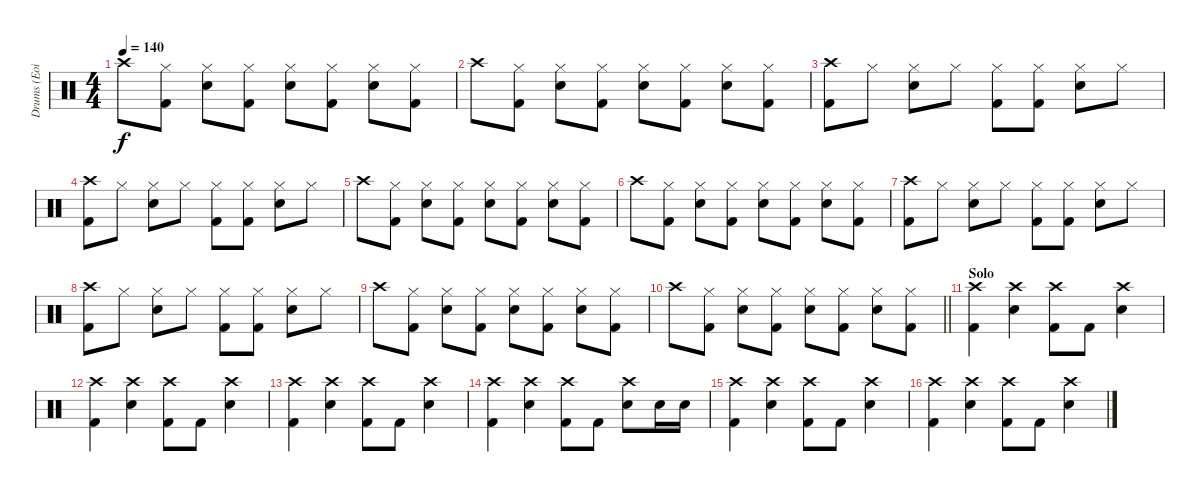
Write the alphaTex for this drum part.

\track ("Drums (Eoin)" "Drums (Eoi") {instrument percussion}
\staff {score}
\articulation defaults
\ts (4 4)
\tempo 140
\clef neutral
\ks c "Crash high (hit)".8{dy f}
("Hi-Hat (closed)" "Kick (hit) 2").8 ("Hi-Hat (closed)" "Electric Snare (hit)").8 ("Hi-Hat (closed)" "Kick (hit) 2").8 ("Hi-Hat (closed)" "Electric Snare (hit)").8 ("Hi-Hat (closed)" "Kick (hit) 2").8 ("Hi-Hat (closed)" "Electric Snare (hit)").8 ("Hi-Hat (closed)" "Kick (hit) 2").8 |
"Crash high (hit)".8 ("Hi-Hat (closed)" "Kick (hit) 2").8 ("Hi-Hat (closed)" "Electric Snare (hit)").8 ("Hi-Hat (closed)" "Kick (hit) 2").8 ("Hi-Hat (closed)" "Electric Snare (hit)").8 ("Hi-Hat (closed)" "Kick (hit) 2").8 ("Hi-Hat (closed)" "Electric Snare (hit)").8 ("Hi-Hat (closed)" "Kick (hit) 2").8 |
("Crash high (hit)" "Kick (hit) 2").8 "Hi-Hat (closed)".8 ("Hi-Hat (closed)" "Electric Snare (hit)").8 "Hi-Hat (closed)".8 ("Hi-Hat (closed)" "Kick (hit) 2").8 ("Hi-Hat (closed)" "Kick (hit) 2").8 ("Hi-Hat (closed)" "Electric Snare (hit)").8 "Hi-Hat (closed)".8 |
("Crash high (hit)" "Kick (hit) 2").8 "Hi-Hat (closed)".8 ("Hi-Hat (closed)" "Electric Snare (hit)").8 "Hi-Hat (closed)".8 ("Hi-Hat (closed)" "Kick (hit) 2").8 ("Hi-Hat (closed)" "Kick (hit) 2").8 ("Hi-Hat (closed)" "Electric Snare (hit)").8 "Hi-Hat (closed)".8 |
"Crash high (hit)".8 ("Hi-Hat (closed)" "Kick (hit) 2").8 ("Hi-Hat (closed)" "Electric Snare (hit)").8 ("Hi-Hat (closed)" "Kick (hit) 2").8 ("Hi-Hat (closed)" "Electric Snare (hit)").8 ("Hi-Hat (closed)" "Kick (hit) 2").8 ("Hi-Hat (closed)" "Electric Snare (hit)").8 ("Hi-Hat (closed)" "Kick (hit) 2").8 |
"Crash high (hit)".8 ("Hi-Hat (closed)" "Kick (hit) 2").8 ("Hi-Hat (closed)" "Electric Snare (hit)").8 ("Hi-Hat (closed)" "Kick (hit) 2").8 ("Hi-Hat (closed)" "Electric Snare (hit)").8 ("Hi-Hat (closed)" "Kick (hit) 2").8 ("Hi-Hat (closed)" "Electric Snare (hit)").8 ("Hi-Hat (closed)" "Kick (hit) 2").8 |
("Crash high (hit)" "Kick (hit) 2").8 "Hi-Hat (closed)".8 ("Hi-Hat (closed)" "Electric Snare (hit)").8 "Hi-Hat (closed)".8 ("Hi-Hat (closed)" "Kick (hit) 2").8 ("Hi-Hat (closed)" "Kick (hit) 2").8 ("Hi-Hat (closed)" "Electric Snare (hit)").8 "Hi-Hat (closed)".8 |
("Crash high (hit)" "Kick (hit) 2").8 "Hi-Hat (closed)".8 ("Hi-Hat (closed)" "Electric Snare (hit)").8 "Hi-Hat (closed)".8 ("Hi-Hat (closed)" "Kick (hit) 2").8 ("Hi-Hat (closed)" "Kick (hit) 2").8 ("Hi-Hat (closed)" "Electric Snare (hit)").8 "Hi-Hat (closed)".8 |
"Crash high (hit)".8 ("Hi-Hat (closed)" "Kick (hit) 2").8 ("Hi-Hat (closed)" "Electric Snare (hit)").8 ("Hi-Hat (closed)" "Kick (hit) 2").8 ("Hi-Hat (closed)" "Electric Snare (hit)").8 ("Hi-Hat (closed)" "Kick (hit) 2").8 ("Hi-Hat (closed)" "Electric Snare (hit)").8 ("Hi-Hat (closed)" "Kick (hit) 2").8 |
\barLineRight lightlight "Crash high (hit)".8
("Hi-Hat (closed)" "Kick (hit) 2").8 ("Hi-Hat (closed)" "Electric Snare (hit)").8 ("Hi-Hat (closed)" "Kick (hit) 2").8 ("Hi-Hat (closed)" "Electric Snare (hit)").8 ("Hi-Hat (closed)" "Kick (hit) 2").8 ("Hi-Hat (closed)" "Electric Snare (hit)").8 ("Hi-Hat (closed)" "Kick (hit) 2").8 |
\section ("" "Solo")
("Crash high (hit)" "Kick (hit) 2").4 ("Crash high (hit)" "Electric Snare (hit)").4 ("Crash high (hit)" "Kick (hit) 2").8 "Kick (hit) 2".8 ("Crash high (hit)" "Electric Snare (hit)").4 |
("Crash high (hit)" "Kick (hit) 2").4 ("Crash high (hit)" "Electric Snare (hit)").4 ("Crash high (hit)" "Kick (hit) 2").8 "Kick (hit) 2".8 ("Crash high (hit)" "Electric Snare (hit)").4 |
("Crash high (hit)" "Kick (hit) 2").4 ("Crash high (hit)" "Electric Snare (hit)").4 ("Crash high (hit)" "Kick (hit) 2").8 "Kick (hit) 2".8 ("Crash high (hit)" "Electric Snare (hit)").4 |
("Crash high (hit)" "Kick (hit) 2").4 ("Crash high (hit)" "Electric Snare (hit)").4 ("Crash high (hit)" "Kick (hit) 2").8 "Kick (hit) 2".8 ("Crash high (hit)" "Electric Snare (hit)").8 "Electric Snare (hit)".16 "Electric Snare (hit)".16 |
("Crash high (hit)" "Kick (hit) 2").4 ("Crash high (hit)" "Electric Snare (hit)").4 ("Crash high (hit)" "Kick (hit) 2").8 "Kick (hit) 2".8 ("Crash high (hit)" "Electric Snare (hit)").4 |
("Crash high (hit)" "Kick (hit) 2").4 ("Crash high (hit)" "Electric Snare (hit)").4 ("Crash high (hit)" "Kick (hit) 2").8 "Kick (hit) 2".8 ("Crash high (hit)" "Electric Snare (hit)").4
